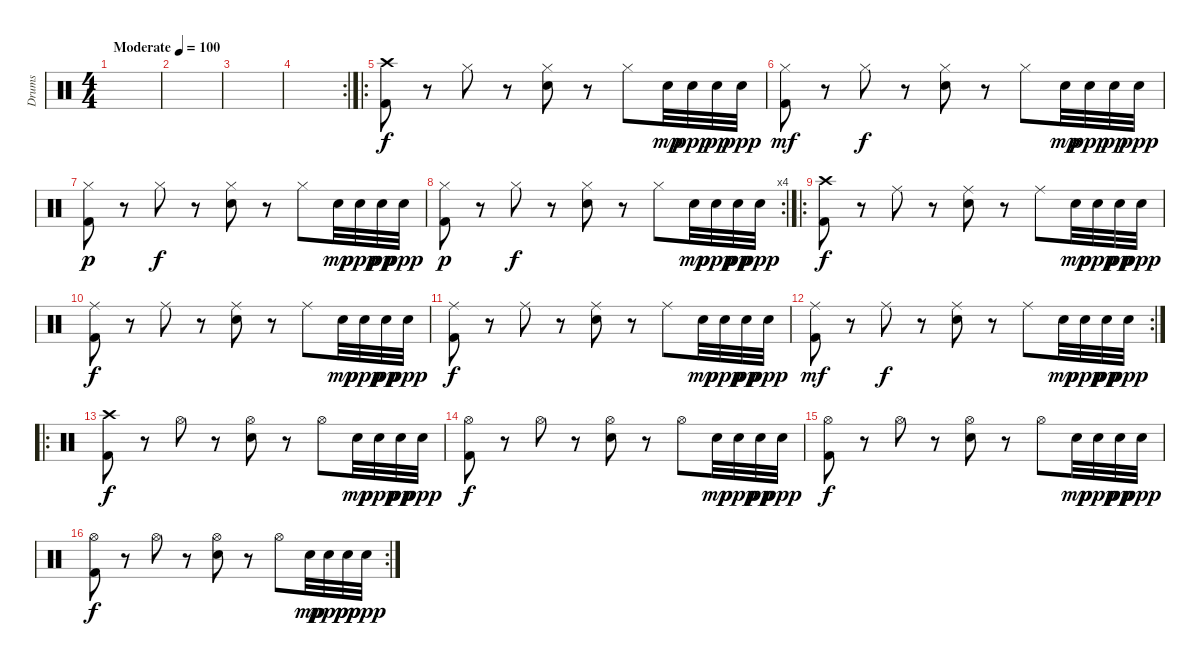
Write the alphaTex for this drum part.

\track ("Drums" "Drums") {instrument percussion}
\staff {score}
\articulation defaults
\ts (4 4)
\tempo (100 "Moderate")
\clef neutral
\ks c
|
|
|
\rc 2
|
\ro
("Crash high (hit)" "Kick (hit) 2").8 r.8 "Hi-Hat (closed)".8 r.8 ("Hi-Hat (closed)" "Snare (hit) 2").8 r.8 "Hi-Hat (closed)".8 "Snare (hit) 2".32{dy mp} "Snare (hit) 2".32{dy ppp} "Snare (hit) 2".32{dy pp} "Snare (hit) 2".32{dy ppp} |
("Hi-Hat (closed)" "Kick (hit) 2").8{dy mf} r.8 "Hi-Hat (closed)".8{dy f} r.8 ("Hi-Hat (closed)" "Snare (hit) 2").8 r.8 "Hi-Hat (closed)".8 "Snare (hit) 2".32{dy mp} "Snare (hit) 2".32{dy ppp} "Snare (hit) 2".32{dy pp} "Snare (hit) 2".32{dy ppp} |
("Hi-Hat (closed)" "Kick (hit) 2").8{dy p} r.8 "Hi-Hat (closed)".8{dy f} r.8 ("Hi-Hat (closed)" "Snare (hit) 2").8 r.8 "Hi-Hat (closed)".8 "Snare (hit) 2".32{dy mp} "Snare (hit) 2".32{dy ppp} "Snare (hit) 2".32{dy pp} "Snare (hit) 2".32{dy ppp} |
\rc 4
("Hi-Hat (closed)" "Kick (hit) 2").8{dy p} r.8 "Hi-Hat (closed)".8{dy f} r.8 ("Hi-Hat (closed)" "Snare (hit) 2").8 r.8 "Hi-Hat (closed)".8 "Snare (hit) 2".32{dy mp} "Snare (hit) 2".32{dy ppp} "Snare (hit) 2".32{dy pp} "Snare (hit) 2".32{dy ppp} |
\ro
("Crash high (hit)" "Kick (hit) 2").8{dy f} r.8 "Ride (middle)".8 r.8 ("Ride (middle)" "Snare (hit) 2").8 r.8 "Ride (middle)".8 "Snare (hit) 2".32{dy mp} "Snare (hit) 2".32{dy ppp} "Snare (hit) 2".32{dy pp} "Snare (hit) 2".32{dy ppp} |
("Ride (middle)" "Kick (hit) 2").8{dy f} r.8 "Ride (middle)".8 r.8 ("Ride (middle)" "Snare (hit) 2").8 r.8 "Ride (middle)".8 "Snare (hit) 2".32{dy mp} "Snare (hit) 2".32{dy ppp} "Snare (hit) 2".32{dy pp} "Snare (hit) 2".32{dy ppp} |
("Ride (middle)" "Kick (hit) 2").8{dy f} r.8 "Ride (middle)".8 r.8 ("Ride (middle)" "Snare (hit) 2").8 r.8 "Ride (middle)".8 "Snare (hit) 2".32{dy mp} "Snare (hit) 2".32{dy ppp} "Snare (hit) 2".32{dy pp} "Snare (hit) 2".32{dy ppp} |
\rc 2
("Ride (middle)" "Kick (hit) 2").8{dy mf} r.8 "Ride (middle)".8{dy f} r.8 ("Ride (middle)" "Snare (hit) 2").8 r.8 "Ride (middle)".8 "Snare (hit) 2".32{dy mp} "Snare (hit) 2".32{dy ppp} "Snare (hit) 2".32{dy pp} "Snare (hit) 2".32{dy ppp} |
\ro
("Crash high (hit)" "Kick (hit) 2").8{dy f} r.8 "Hi-Hat (open)".8 r.8 ("Hi-Hat (open)" "Snare (hit) 2").8 r.8 "Hi-Hat (open)".8 "Snare (hit) 2".32{dy mp} "Snare (hit) 2".32{dy ppp} "Snare (hit) 2".32{dy pp} "Snare (hit) 2".32{dy ppp} |
("Hi-Hat (open)" "Kick (hit) 2").8{dy f} r.8 "Hi-Hat (open)".8 r.8 ("Hi-Hat (open)" "Snare (hit) 2").8 r.8 "Hi-Hat (open)".8 "Snare (hit) 2".32{dy mp} "Snare (hit) 2".32{dy ppp} "Snare (hit) 2".32{dy pp} "Snare (hit) 2".32{dy ppp} |
("Hi-Hat (open)" "Kick (hit) 2").8{dy f} r.8 "Hi-Hat (open)".8 r.8 ("Hi-Hat (open)" "Snare (hit) 2").8 r.8 "Hi-Hat (open)".8 "Snare (hit) 2".32{dy mp} "Snare (hit) 2".32{dy ppp} "Snare (hit) 2".32{dy pp} "Snare (hit) 2".32{dy ppp} |
\rc 2
("Hi-Hat (open)" "Kick (hit) 2").8{dy f} r.8 "Hi-Hat (open)".8 r.8 ("Hi-Hat (open)" "Snare (hit) 2").8 r.8 "Hi-Hat (open)".8 "Snare (hit) 2".32{dy mp} "Snare (hit) 2".32{dy ppp} "Snare (hit) 2".32{dy pp} "Snare (hit) 2".32{dy ppp}
